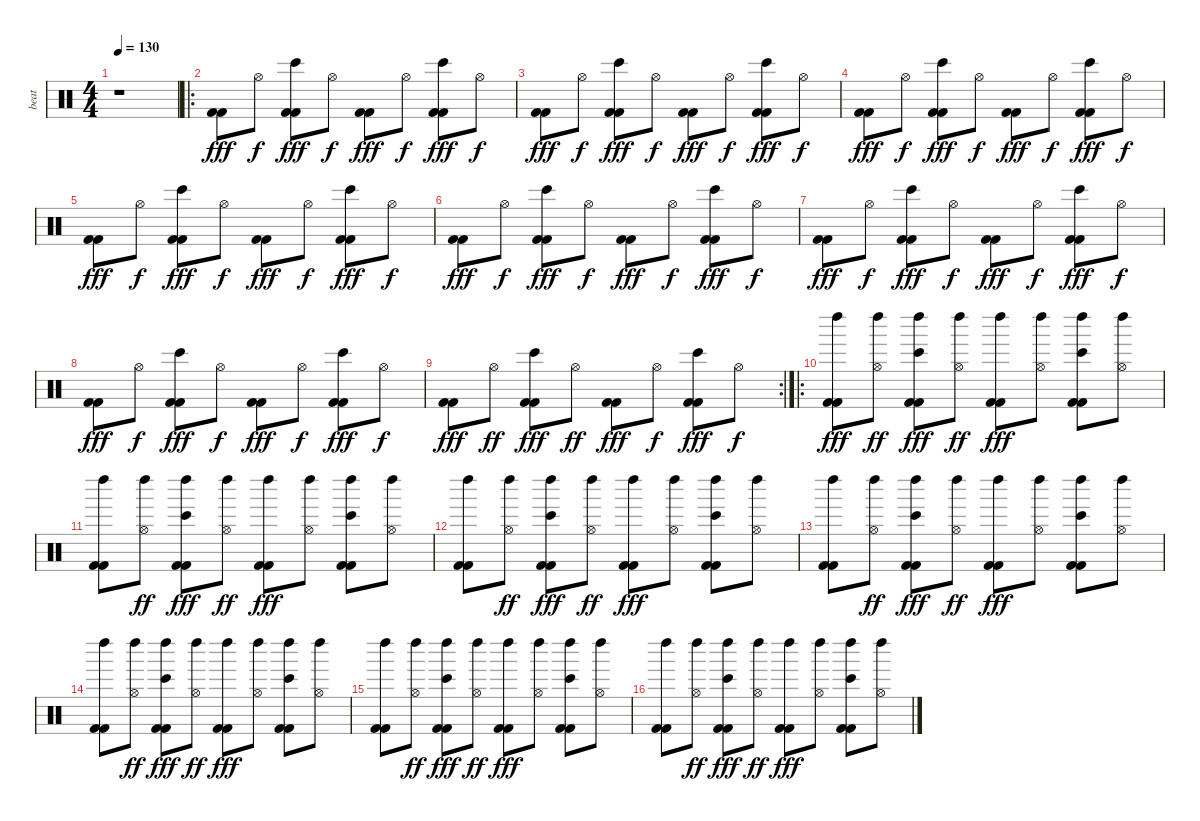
\track ("beat" "beat") {instrument percussion}
\staff {score}
\articulation defaults
\ts (4 4)
\tempo 130
\clef neutral
\ks c
r.1{dy fff} |
\ro
("Kick (hit) 2" "Kick (hit) 2").8 "Hi-Hat (open)".8{dy f} ("Kick (hit) 2" "Kick (hit) 2" "Bongo High (hit)").8{dy fff} "Hi-Hat (open)".8{dy f} ("Kick (hit) 2" "Kick (hit) 2").8{dy fff} "Hi-Hat (open)".8{dy f} ("Kick (hit) 2" "Kick (hit) 2" "Bongo High (hit)").8{dy fff} "Hi-Hat (open)".8{dy f} |
("Kick (hit) 2" "Kick (hit) 2").8{dy fff} "Hi-Hat (open)".8{dy f} ("Kick (hit) 2" "Kick (hit) 2" "Bongo High (hit)").8{dy fff} "Hi-Hat (open)".8{dy f} ("Kick (hit) 2" "Kick (hit) 2").8{dy fff} "Hi-Hat (open)".8{dy f} ("Kick (hit) 2" "Kick (hit) 2" "Bongo High (hit)").8{dy fff} "Hi-Hat (open)".8{dy f} |
("Kick (hit) 2" "Kick (hit) 2").8{dy fff} "Hi-Hat (open)".8{dy f} ("Kick (hit) 2" "Kick (hit) 2" "Bongo High (hit)").8{dy fff} "Hi-Hat (open)".8{dy f} ("Kick (hit) 2" "Kick (hit) 2").8{dy fff} "Hi-Hat (open)".8{dy f} ("Kick (hit) 2" "Kick (hit) 2" "Bongo High (hit)").8{dy fff} "Hi-Hat (open)".8{dy f} |
("Kick (hit) 2" "Kick (hit) 2").8{dy fff} "Hi-Hat (open)".8{dy f} ("Kick (hit) 2" "Kick (hit) 2" "Bongo High (hit)").8{dy fff} "Hi-Hat (open)".8{dy f} ("Kick (hit) 2" "Kick (hit) 2").8{dy fff} "Hi-Hat (open)".8{dy f} ("Kick (hit) 2" "Kick (hit) 2" "Bongo High (hit)").8{dy fff} "Hi-Hat (open)".8{dy f} |
("Kick (hit) 2" "Kick (hit) 2").8{dy fff} "Hi-Hat (open)".8{dy f} ("Kick (hit) 2" "Kick (hit) 2" "Bongo High (hit)").8{dy fff} "Hi-Hat (open)".8{dy f} ("Kick (hit) 2" "Kick (hit) 2").8{dy fff} "Hi-Hat (open)".8{dy f} ("Kick (hit) 2" "Kick (hit) 2" "Bongo High (hit)").8{dy fff} "Hi-Hat (open)".8{dy f} |
("Kick (hit) 2" "Kick (hit) 2").8{dy fff} "Hi-Hat (open)".8{dy f} ("Kick (hit) 2" "Kick (hit) 2" "Bongo High (hit)").8{dy fff} "Hi-Hat (open)".8{dy f} ("Kick (hit) 2" "Kick (hit) 2").8{dy fff} "Hi-Hat (open)".8{dy f} ("Kick (hit) 2" "Kick (hit) 2" "Bongo High (hit)").8{dy fff} "Hi-Hat (open)".8{dy f} |
("Kick (hit) 2" "Kick (hit) 2").8{dy fff} "Hi-Hat (open)".8{dy f} ("Kick (hit) 2" "Kick (hit) 2" "Bongo High (hit)").8{dy fff} "Hi-Hat (open)".8{dy f} ("Kick (hit) 2" "Kick (hit) 2").8{dy fff} "Hi-Hat (open)".8{dy f} ("Kick (hit) 2" "Kick (hit) 2" "Bongo High (hit)").8{dy fff} "Hi-Hat (open)".8{dy f} |
\rc 2
("Kick (hit) 2" "Kick (hit) 2").8{dy fff} "Hi-Hat (open)".8{dy ff} ("Kick (hit) 2" "Kick (hit) 2" "Bongo High (hit)").8{dy fff} "Hi-Hat (open)".8{dy ff} ("Kick (hit) 2" "Kick (hit) 2").8{dy fff} "Hi-Hat (open)".8{dy f} ("Kick (hit) 2" "Kick (hit) 2" "Bongo High (hit)").8{dy fff} "Hi-Hat (open)".8{dy f} |
\ro
("Kick (hit) 2" "Kick (hit) 2" "Left Maraca (hit)").8{dy fff} ("Left Maraca (hit)" "Hi-Hat (open)").8{dy ff} ("Kick (hit) 2" "Kick (hit) 2" "Bongo High (hit)" "Left Maraca (hit)").8{dy fff} ("Left Maraca (hit)" "Hi-Hat (open)").8{dy ff} ("Kick (hit) 2" "Kick (hit) 2" "Left Maraca (hit)").8{dy fff} ("Left Maraca (hit)" "Hi-Hat (open)").8 ("Kick (hit) 2" "Kick (hit) 2" "Bongo High (hit)" "Left Maraca (hit)").8 ("Left Maraca (hit)" "Hi-Hat (open)").8 |
("Kick (hit) 2" "Kick (hit) 2" "Left Maraca (hit)").8 ("Left Maraca (hit)" "Hi-Hat (open)").8{dy ff} ("Kick (hit) 2" "Kick (hit) 2" "Bongo High (hit)" "Left Maraca (hit)").8{dy fff} ("Left Maraca (hit)" "Hi-Hat (open)").8{dy ff} ("Kick (hit) 2" "Kick (hit) 2" "Left Maraca (hit)").8{dy fff} ("Left Maraca (hit)" "Hi-Hat (open)").8 ("Kick (hit) 2" "Kick (hit) 2" "Bongo High (hit)" "Left Maraca (hit)").8 ("Left Maraca (hit)" "Hi-Hat (open)").8 |
("Kick (hit) 2" "Kick (hit) 2" "Left Maraca (hit)").8 ("Left Maraca (hit)" "Hi-Hat (open)").8{dy ff} ("Kick (hit) 2" "Kick (hit) 2" "Bongo High (hit)" "Left Maraca (hit)").8{dy fff} ("Left Maraca (hit)" "Hi-Hat (open)").8{dy ff} ("Kick (hit) 2" "Kick (hit) 2" "Left Maraca (hit)").8{dy fff} ("Left Maraca (hit)" "Hi-Hat (open)").8 ("Kick (hit) 2" "Kick (hit) 2" "Bongo High (hit)" "Left Maraca (hit)").8 ("Left Maraca (hit)" "Hi-Hat (open)").8 |
("Kick (hit) 2" "Kick (hit) 2" "Left Maraca (hit)").8 ("Left Maraca (hit)" "Hi-Hat (open)").8{dy ff} ("Kick (hit) 2" "Kick (hit) 2" "Bongo High (hit)" "Left Maraca (hit)").8{dy fff} ("Left Maraca (hit)" "Hi-Hat (open)").8{dy ff} ("Kick (hit) 2" "Kick (hit) 2" "Left Maraca (hit)").8{dy fff} ("Left Maraca (hit)" "Hi-Hat (open)").8 ("Kick (hit) 2" "Kick (hit) 2" "Bongo High (hit)" "Left Maraca (hit)").8 ("Left Maraca (hit)" "Hi-Hat (open)").8 |
("Kick (hit) 2" "Kick (hit) 2" "Left Maraca (hit)").8 ("Left Maraca (hit)" "Hi-Hat (open)").8{dy ff} ("Kick (hit) 2" "Kick (hit) 2" "Bongo High (hit)" "Left Maraca (hit)").8{dy fff} ("Left Maraca (hit)" "Hi-Hat (open)").8{dy ff} ("Kick (hit) 2" "Kick (hit) 2" "Left Maraca (hit)").8{dy fff} ("Left Maraca (hit)" "Hi-Hat (open)").8 ("Kick (hit) 2" "Kick (hit) 2" "Bongo High (hit)" "Left Maraca (hit)").8 ("Left Maraca (hit)" "Hi-Hat (open)").8 |
("Kick (hit) 2" "Kick (hit) 2" "Left Maraca (hit)").8 ("Left Maraca (hit)" "Hi-Hat (open)").8{dy ff} ("Kick (hit) 2" "Kick (hit) 2" "Bongo High (hit)" "Left Maraca (hit)").8{dy fff} ("Left Maraca (hit)" "Hi-Hat (open)").8{dy ff} ("Kick (hit) 2" "Kick (hit) 2" "Left Maraca (hit)").8{dy fff} ("Left Maraca (hit)" "Hi-Hat (open)").8 ("Kick (hit) 2" "Kick (hit) 2" "Bongo High (hit)" "Left Maraca (hit)").8 ("Left Maraca (hit)" "Hi-Hat (open)").8 |
("Kick (hit) 2" "Kick (hit) 2" "Left Maraca (hit)").8 ("Left Maraca (hit)" "Hi-Hat (open)").8{dy ff} ("Kick (hit) 2" "Kick (hit) 2" "Bongo High (hit)" "Left Maraca (hit)").8{dy fff} ("Left Maraca (hit)" "Hi-Hat (open)").8{dy ff} ("Kick (hit) 2" "Kick (hit) 2" "Left Maraca (hit)").8{dy fff} ("Left Maraca (hit)" "Hi-Hat (open)").8 ("Kick (hit) 2" "Kick (hit) 2" "Bongo High (hit)" "Left Maraca (hit)").8 ("Left Maraca (hit)" "Hi-Hat (open)").8
